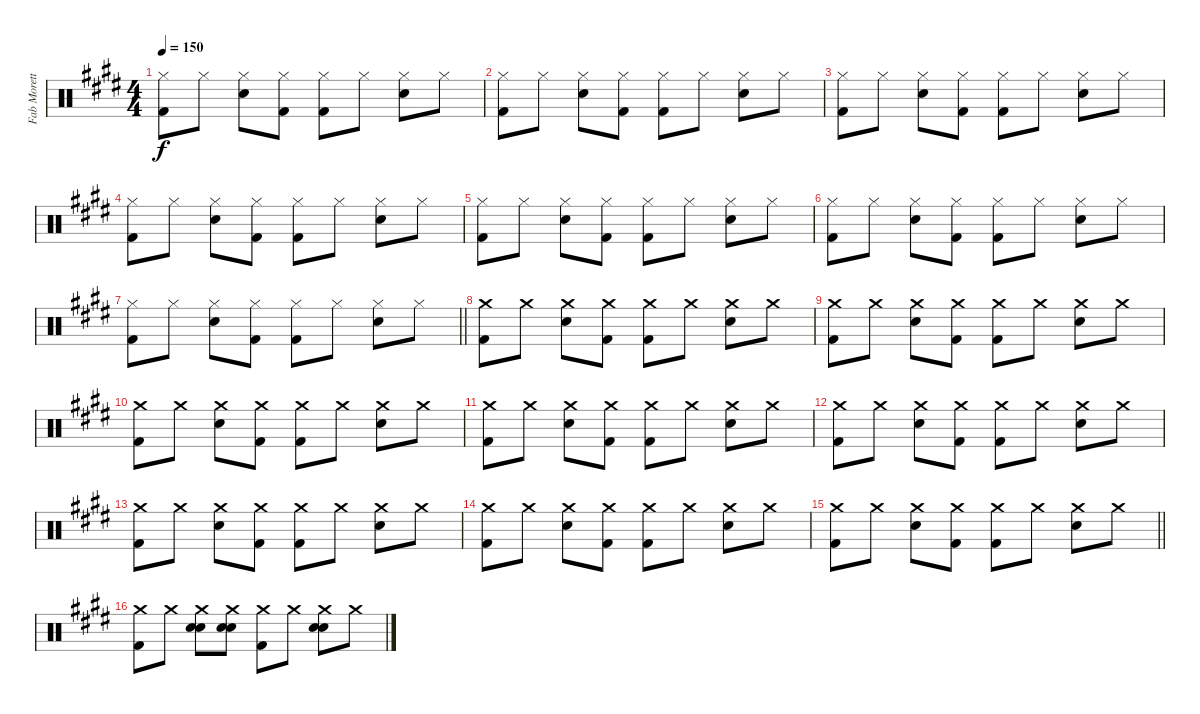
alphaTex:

\track ("Fab Moretti - Drums" "Fab Morett") {instrument percussion}
\staff {score}
\articulation defaults
\ts (4 4)
\tempo 150
\clef neutral
\ks e
("Hi-Hat (closed)" "Kick (hit) 2").8{dy f} "Hi-Hat (closed)".8 ("Hi-Hat (closed)" "Snare (hit) 2").8 ("Hi-Hat (closed)" "Kick (hit) 2").8 ("Hi-Hat (closed)" "Kick (hit) 2").8 "Hi-Hat (closed)".8 ("Hi-Hat (closed)" "Snare (hit) 2").8 "Hi-Hat (closed)".8 |
("Hi-Hat (closed)" "Kick (hit) 2").8 "Hi-Hat (closed)".8 ("Hi-Hat (closed)" "Snare (hit) 2").8 ("Hi-Hat (closed)" "Kick (hit) 2").8 ("Hi-Hat (closed)" "Kick (hit) 2").8 "Hi-Hat (closed)".8 ("Hi-Hat (closed)" "Snare (hit) 2").8 "Hi-Hat (closed)".8 |
("Hi-Hat (closed)" "Kick (hit) 2").8 "Hi-Hat (closed)".8 ("Hi-Hat (closed)" "Snare (hit) 2").8 ("Hi-Hat (closed)" "Kick (hit) 2").8 ("Hi-Hat (closed)" "Kick (hit) 2").8 "Hi-Hat (closed)".8 ("Hi-Hat (closed)" "Snare (hit) 2").8 "Hi-Hat (closed)".8 |
("Hi-Hat (closed)" "Kick (hit) 2").8 "Hi-Hat (closed)".8 ("Hi-Hat (closed)" "Snare (hit) 2").8 ("Hi-Hat (closed)" "Kick (hit) 2").8 ("Hi-Hat (closed)" "Kick (hit) 2").8 "Hi-Hat (closed)".8 ("Hi-Hat (closed)" "Snare (hit) 2").8 "Hi-Hat (closed)".8 |
("Hi-Hat (closed)" "Kick (hit) 2").8 "Hi-Hat (closed)".8 ("Hi-Hat (closed)" "Snare (hit) 2").8 ("Hi-Hat (closed)" "Kick (hit) 2").8 ("Hi-Hat (closed)" "Kick (hit) 2").8 "Hi-Hat (closed)".8 ("Hi-Hat (closed)" "Snare (hit) 2").8 "Hi-Hat (closed)".8 |
("Hi-Hat (closed)" "Kick (hit) 2").8 "Hi-Hat (closed)".8 ("Hi-Hat (closed)" "Snare (hit) 2").8 ("Hi-Hat (closed)" "Kick (hit) 2").8 ("Hi-Hat (closed)" "Kick (hit) 2").8 "Hi-Hat (closed)".8 ("Hi-Hat (closed)" "Snare (hit) 2").8 "Hi-Hat (closed)".8 |
\barLineRight lightlight
("Hi-Hat (closed)" "Kick (hit) 2").8 "Hi-Hat (closed)".8 ("Hi-Hat (closed)" "Snare (hit) 2").8 ("Hi-Hat (closed)" "Kick (hit) 2").8 ("Hi-Hat (closed)" "Kick (hit) 2").8 "Hi-Hat (closed)".8 ("Hi-Hat (closed)" "Snare (hit) 2").8 "Hi-Hat (closed)".8 |
("Crash medium (hit)" "Kick (hit) 2").8 "Crash medium (hit)".8 ("Crash medium (hit)" "Snare (hit) 2").8 ("Crash medium (hit)" "Kick (hit) 2").8 ("Crash medium (hit)" "Kick (hit) 2").8 "Crash medium (hit)".8 ("Crash medium (hit)" "Snare (hit) 2").8 "Crash medium (hit)".8 |
("Crash medium (hit)" "Kick (hit) 2").8 "Crash medium (hit)".8 ("Crash medium (hit)" "Snare (hit) 2").8 ("Crash medium (hit)" "Kick (hit) 2").8 ("Crash medium (hit)" "Kick (hit) 2").8 "Crash medium (hit)".8 ("Crash medium (hit)" "Snare (hit) 2").8 "Crash medium (hit)".8 |
("Crash medium (hit)" "Kick (hit) 2").8 "Crash medium (hit)".8 ("Crash medium (hit)" "Snare (hit) 2").8 ("Crash medium (hit)" "Kick (hit) 2").8 ("Crash medium (hit)" "Kick (hit) 2").8 "Crash medium (hit)".8 ("Crash medium (hit)" "Snare (hit) 2").8 "Crash medium (hit)".8 |
("Crash medium (hit)" "Kick (hit) 2").8 "Crash medium (hit)".8 ("Crash medium (hit)" "Snare (hit) 2").8 ("Crash medium (hit)" "Kick (hit) 2").8 ("Crash medium (hit)" "Kick (hit) 2").8 "Crash medium (hit)".8 ("Crash medium (hit)" "Snare (hit) 2").8 "Crash medium (hit)".8 |
("Crash medium (hit)" "Kick (hit) 2").8 "Crash medium (hit)".8 ("Crash medium (hit)" "Snare (hit) 2").8 ("Crash medium (hit)" "Kick (hit) 2").8 ("Crash medium (hit)" "Kick (hit) 2").8 "Crash medium (hit)".8 ("Crash medium (hit)" "Snare (hit) 2").8 "Crash medium (hit)".8 |
("Crash medium (hit)" "Kick (hit) 2").8 "Crash medium (hit)".8 ("Crash medium (hit)" "Snare (hit) 2").8 ("Crash medium (hit)" "Kick (hit) 2").8 ("Crash medium (hit)" "Kick (hit) 2").8 "Crash medium (hit)".8 ("Crash medium (hit)" "Snare (hit) 2").8 "Crash medium (hit)".8 |
("Crash medium (hit)" "Kick (hit) 2").8 "Crash medium (hit)".8 ("Crash medium (hit)" "Snare (hit) 2").8 ("Crash medium (hit)" "Kick (hit) 2").8 ("Crash medium (hit)" "Kick (hit) 2").8 "Crash medium (hit)".8 ("Crash medium (hit)" "Snare (hit) 2").8 "Crash medium (hit)".8 |
\barLineRight lightlight
("Crash medium (hit)" "Kick (hit) 2").8 "Crash medium (hit)".8 ("Crash medium (hit)" "Snare (hit) 2").8 ("Crash medium (hit)" "Kick (hit) 2").8 ("Crash medium (hit)" "Kick (hit) 2").8 "Crash medium (hit)".8 ("Crash medium (hit)" "Snare (hit) 2").8 "Crash medium (hit)".8 |
("Crash medium (hit)" "Kick (hit) 2").8 "Crash medium (hit)".8 ("Crash medium (hit)" "Hand Clap (hit)" "Snare (hit) 2").8 ("Crash medium (hit)" "Hand Clap (hit)" "Snare (hit) 2").8 ("Crash medium (hit)" "Kick (hit) 2").8 "Crash medium (hit)".8 ("Crash medium (hit)" "Hand Clap (hit)" "Snare (hit) 2").8 "Crash medium (hit)".8
